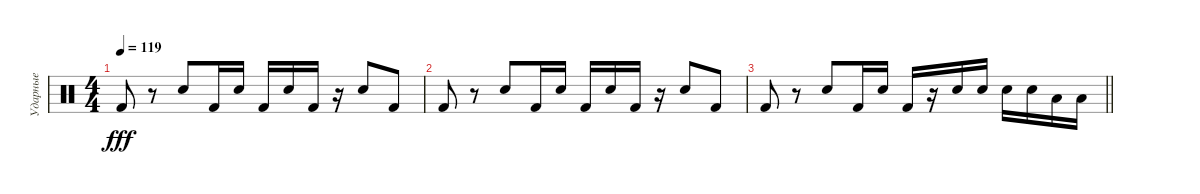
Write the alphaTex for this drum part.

\track ("Ударные" "Ударные") {instrument percussion}
\staff {score}
\articulation defaults
\ts (4 4)
\tempo 119
\clef neutral
\ks c "Kick (hit) 2".8{dy fff}
r.8 "Snare (hit) 2".8 "Kick (hit) 2".16 "Snare (hit) 2".16 "Kick (hit) 2".16 "Snare (hit) 2".16 "Kick (hit) 2".16 r.16 "Snare (hit) 2".8 "Kick (hit) 2".8 |
"Kick (hit) 2".8 r.8 "Snare (hit) 2".8 "Kick (hit) 2".16 "Snare (hit) 2".16 "Kick (hit) 2".16 "Snare (hit) 2".16 "Kick (hit) 2".16 r.16 "Snare (hit) 2".8 "Kick (hit) 2".8 |
\barLineRight lightlight "Kick (hit) 2".8
r.8 "Snare (hit) 2".8 "Kick (hit) 2".16 "Snare (hit) 2".16 "Kick (hit) 2".16 r.16 "Snare (hit) 2".16 "Snare (hit) 2".16 "Snare (hit) 2".16 "Snare (hit) 2".16 "Low Tom (hit)".16 "Low Tom (hit)".16
